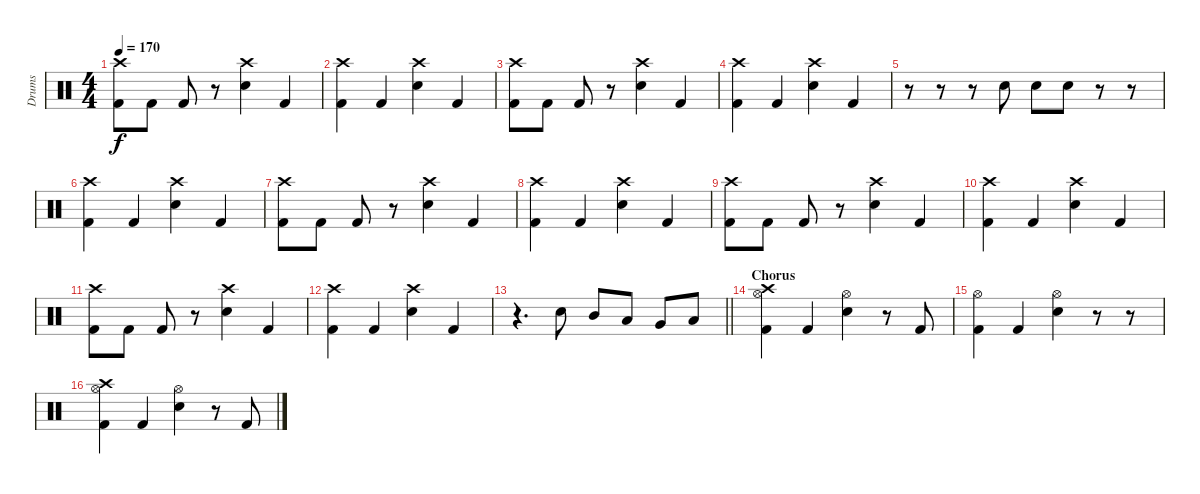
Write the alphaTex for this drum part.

\track ("Drums" "Drums") {instrument percussion}
\staff {score}
\articulation defaults
\ts (4 4)
\tempo 170
\clef neutral
\ks c
("Crash high (hit)" "Kick (hit) 2").8{dy f} "Kick (hit) 2".8 "Kick (hit) 2".8 r.8 ("Crash high (hit)" "Snare (hit) 2").4 "Kick (hit) 2".4 |
("Crash high (hit)" "Kick (hit) 2").4 "Kick (hit) 2".4 ("Crash high (hit)" "Snare (hit) 2").4 "Kick (hit) 2".4 |
("Crash high (hit)" "Kick (hit) 2").8 "Kick (hit) 2".8 "Kick (hit) 2".8 r.8 ("Crash high (hit)" "Snare (hit) 2").4 "Kick (hit) 2".4 |
("Crash high (hit)" "Kick (hit) 2").4 "Kick (hit) 2".4 ("Crash high (hit)" "Snare (hit) 2").4 "Kick (hit) 2".4 |
r.8 r.8 r.8 "Snare (hit) 2".8 "Snare (hit) 2".8 "Snare (hit) 2".8 r.8 r.8 |
("Crash high (hit)" "Kick (hit) 2").4 "Kick (hit) 2".4 ("Crash high (hit)" "Snare (hit) 2").4 "Kick (hit) 2".4 |
("Crash high (hit)" "Kick (hit) 2").8 "Kick (hit) 2".8 "Kick (hit) 2".8 r.8 ("Crash high (hit)" "Snare (hit) 2").4 "Kick (hit) 2".4 |
("Crash high (hit)" "Kick (hit) 2").4 "Kick (hit) 2".4 ("Crash high (hit)" "Snare (hit) 2").4 "Kick (hit) 2".4 |
("Crash high (hit)" "Kick (hit) 2").8 "Kick (hit) 2".8 "Kick (hit) 2".8 r.8 ("Crash high (hit)" "Snare (hit) 2").4 "Kick (hit) 2".4 |
("Crash high (hit)" "Kick (hit) 2").4 "Kick (hit) 2".4 ("Crash high (hit)" "Snare (hit) 2").4 "Kick (hit) 2".4 |
("Crash high (hit)" "Kick (hit) 2").8 "Kick (hit) 2".8 "Kick (hit) 2".8 r.8 ("Crash high (hit)" "Snare (hit) 2").4 "Kick (hit) 2".4 |
("Crash high (hit)" "Kick (hit) 2").4 "Kick (hit) 2".4 ("Crash high (hit)" "Snare (hit) 2").4 "Kick (hit) 2".4 |
\barLineRight lightlight
r.4{d} "Snare (hit) 2".8 "Mid Tom (hit)".8 "Low Tom (hit)".8 "Very Low Tom (hit)".8 "Low Floor Tom (hit)".8 |
\section ("" "Chorus")
("Hi-Hat (open)" "Crash high (hit)" "Kick (hit) 2").4 "Kick (hit) 2".4 ("Hi-Hat (open)" "Snare (hit) 2").4 r.8 "Kick (hit) 2".8 |
("Hi-Hat (open)" "Kick (hit) 2").4 "Kick (hit) 2".4 ("Hi-Hat (open)" "Snare (hit) 2").4 r.8 r.8 |
("Hi-Hat (open)" "Crash high (hit)" "Kick (hit) 2").4 "Kick (hit) 2".4 ("Hi-Hat (open)" "Snare (hit) 2").4 r.8 "Kick (hit) 2".8
